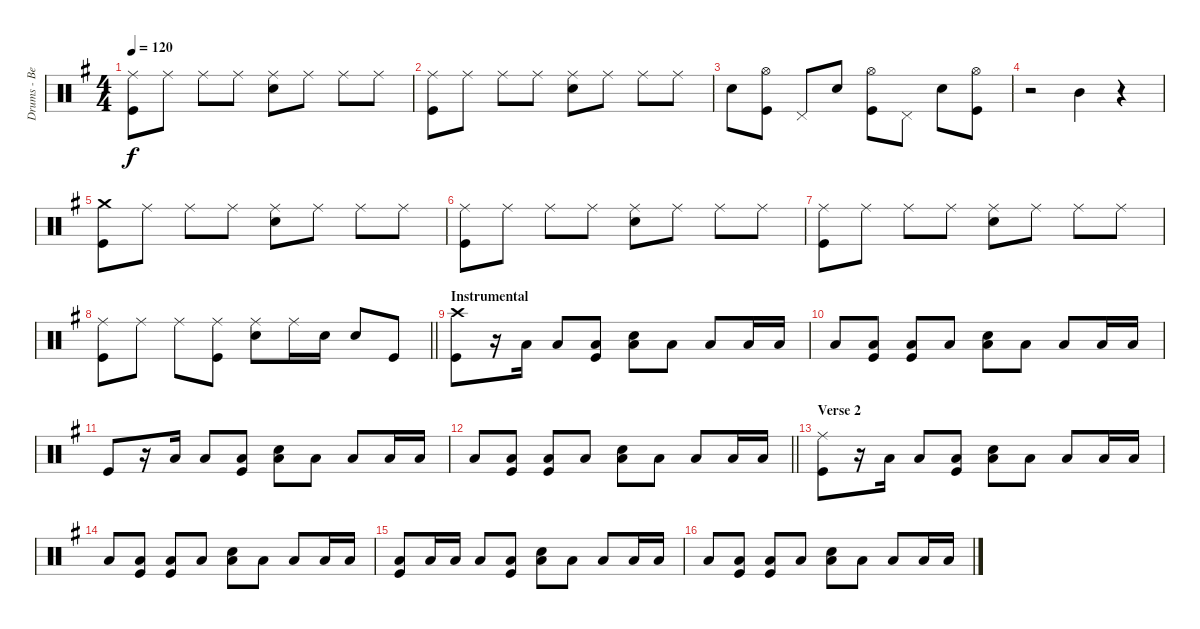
\track ("Drums - Ben Johnston" "Drums - Be") {instrument percussion}
\staff {score}
\articulation defaults
\ts (4 4)
\tempo 120
\clef neutral
\ks eminor
("Ride (middle)" "Kick (hit)").8{dy f} "Ride (middle)".8 "Ride (middle)".8 "Ride (middle)".8 ("Ride (middle)" "Snare (hit) 2").8 "Ride (middle)".8 "Ride (middle)".8 "Ride (middle)".8 |
("Ride (middle)" "Kick (hit)").8 "Ride (middle)".8 "Ride (middle)".8 "Ride (middle)".8 ("Ride (middle)" "Snare (hit) 2").8 "Ride (middle)".8 "Ride (middle)".8 "Ride (middle)".8 |
"Snare (hit) 2".8 ("Hi-Hat (open)" "Kick (hit)").8 "Pedal Hi-Hat (hit)".8 "Snare (hit) 2".8 ("Hi-Hat (open)" "Kick (hit)").8 "Pedal Hi-Hat (hit)".8 "Snare (hit) 2".8 ("Hi-Hat (open)" "Kick (hit)").8 |
r.2 "Mid Tom (hit)".4 r.4 |
("Crash medium (hit)" "Kick (hit)").8 "Ride (middle)".8 "Ride (middle)".8 "Ride (middle)".8 ("Ride (middle)" "Snare (hit) 2").8 "Ride (middle)".8 "Ride (middle)".8 "Ride (middle)".8 |
("Ride (middle)" "Kick (hit)").8 "Ride (middle)".8 "Ride (middle)".8 "Ride (middle)".8 ("Ride (middle)" "Snare (hit) 2").8 "Ride (middle)".8 "Ride (middle)".8 "Ride (middle)".8 |
("Ride (middle)" "Kick (hit)").8 "Ride (middle)".8 "Ride (middle)".8 "Ride (middle)".8 ("Ride (middle)" "Snare (hit) 2").8 "Ride (middle)".8 "Ride (middle)".8 "Ride (middle)".8 |
\barLineRight lightlight
("Ride (middle)" "Kick (hit)").8 "Ride (middle)".8 "Ride (middle)".8 ("Ride (middle)" "Kick (hit)").8 ("Ride (middle)" "Snare (hit) 2").8 "Ride (middle)".16 "Snare (hit) 2".16 "Snare (hit) 2".8 "Kick (hit)".8 |
\section ("" "Instrumental")
("Crash high (hit)" "Kick (hit)").8 r.16 "Low Tom (hit)".16 "Low Tom (hit)".8 ("Low Tom (hit)" "Kick (hit)").8 ("Low Tom (hit)" "Snare (hit) 2").8 "Low Tom (hit)".8 "Low Tom (hit)".8 "Low Tom (hit)".16 "Low Tom (hit)".16 |
"Low Tom (hit)".8 ("Low Tom (hit)" "Kick (hit)").8 ("Low Tom (hit)" "Kick (hit)").8 "Low Tom (hit)".8 ("Low Tom (hit)" "Snare (hit) 2").8 "Low Tom (hit)".8 "Low Tom (hit)".8 "Low Tom (hit)".16 "Low Tom (hit)".16 |
"Kick (hit)".8 r.16 "Low Tom (hit)".16 "Low Tom (hit)".8 ("Low Tom (hit)" "Kick (hit)").8 ("Low Tom (hit)" "Snare (hit) 2").8 "Low Tom (hit)".8 "Low Tom (hit)".8 "Low Tom (hit)".16 "Low Tom (hit)".16 |
\barLineRight lightlight "Low Tom (hit)".8
("Low Tom (hit)" "Kick (hit)").8 ("Low Tom (hit)" "Kick (hit)").8 "Low Tom (hit)".8 ("Low Tom (hit)" "Snare (hit) 2").8 "Low Tom (hit)".8 "Low Tom (hit)".8 "Low Tom (hit)".16 "Low Tom (hit)".16 |
\section ("" "Verse 2")
("Ride (middle)" "Kick (hit)").8 r.16 "Low Tom (hit)".16 "Low Tom (hit)".8 ("Low Tom (hit)" "Kick (hit)").8 ("Low Tom (hit)" "Snare (hit) 2").8 "Low Tom (hit)".8 "Low Tom (hit)".8 "Low Tom (hit)".16 "Low Tom (hit)".16 |
"Low Tom (hit)".8 ("Low Tom (hit)" "Kick (hit)").8 ("Low Tom (hit)" "Kick (hit)").8 "Low Tom (hit)".8 ("Low Tom (hit)" "Snare (hit) 2").8 "Low Tom (hit)".8 "Low Tom (hit)".8 "Low Tom (hit)".16 "Low Tom (hit)".16 |
("Low Tom (hit)" "Kick (hit)").8 "Low Tom (hit)".16 "Low Tom (hit)".16 "Low Tom (hit)".8 ("Low Tom (hit)" "Kick (hit)").8 ("Low Tom (hit)" "Snare (hit) 2").8 "Low Tom (hit)".8 "Low Tom (hit)".8 "Low Tom (hit)".16 "Low Tom (hit)".16 |
"Low Tom (hit)".8 ("Low Tom (hit)" "Kick (hit)").8 ("Low Tom (hit)" "Kick (hit)").8 "Low Tom (hit)".8 ("Low Tom (hit)" "Snare (hit) 2").8 "Low Tom (hit)".8 "Low Tom (hit)".8 "Low Tom (hit)".16 "Low Tom (hit)".16
